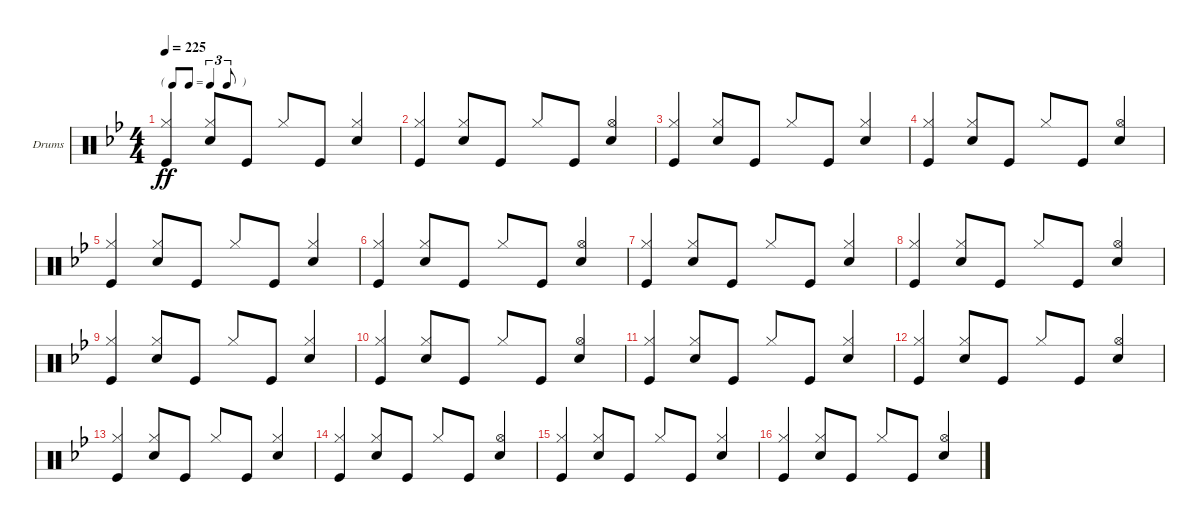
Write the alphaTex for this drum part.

\defaultSystemsLayout 4
\bracketExtendMode groupsimilarinstruments
\firstSystemTrackNameOrientation horizontal
\otherSystemsTrackNameOrientation horizontal
\track ("Drumkit" "Drums") {instrument percussion}
\staff {score}
\articulation defaults
\ts (4 4)
\tf triplet8th
\tempo 225
\clef neutral
\ks gminor
("Kick (hit)" "Hi-Hat (closed)").4{dy ff} ("Snare (hit) 2" "Hi-Hat (closed)").8{beam invert} "Kick (hit)".8 "Hi-Hat (closed)".8{beam invert} "Kick (hit)".8 ("Snare (hit) 2" "Hi-Hat (closed)").4{beam invert} |
("Kick (hit)" "Hi-Hat (closed)").4 ("Snare (hit) 2" "Hi-Hat (closed)").8{beam invert} "Kick (hit)".8 "Hi-Hat (closed)".8{beam invert} "Kick (hit)".8 ("Snare (hit) 2" "Hi-Hat (open)").4{beam invert} |
("Kick (hit)" "Hi-Hat (closed)").4 ("Snare (hit) 2" "Hi-Hat (closed)").8{beam invert} "Kick (hit)".8 "Hi-Hat (closed)".8{beam invert} "Kick (hit)".8 ("Snare (hit) 2" "Hi-Hat (closed)").4{beam invert} |
("Kick (hit)" "Hi-Hat (closed)").4 ("Snare (hit) 2" "Hi-Hat (closed)").8{beam invert} "Kick (hit)".8 "Hi-Hat (closed)".8{beam invert} "Kick (hit)".8 ("Snare (hit) 2" "Hi-Hat (open)").4{beam invert} |
("Kick (hit)" "Hi-Hat (closed)").4 ("Snare (hit) 2" "Hi-Hat (closed)").8{beam invert} "Kick (hit)".8 "Hi-Hat (closed)".8{beam invert} "Kick (hit)".8 ("Snare (hit) 2" "Hi-Hat (closed)").4{beam invert} |
("Kick (hit)" "Hi-Hat (closed)").4 ("Snare (hit) 2" "Hi-Hat (closed)").8{beam invert} "Kick (hit)".8 "Hi-Hat (closed)".8{beam invert} "Kick (hit)".8 ("Snare (hit) 2" "Hi-Hat (open)").4{beam invert} |
("Kick (hit)" "Hi-Hat (closed)").4 ("Snare (hit) 2" "Hi-Hat (closed)").8{beam invert} "Kick (hit)".8 "Hi-Hat (closed)".8{beam invert} "Kick (hit)".8 ("Snare (hit) 2" "Hi-Hat (closed)").4{beam invert} |
("Kick (hit)" "Hi-Hat (closed)").4 ("Snare (hit) 2" "Hi-Hat (closed)").8{beam invert} "Kick (hit)".8 "Hi-Hat (closed)".8{beam invert} "Kick (hit)".8 ("Snare (hit) 2" "Hi-Hat (open)").4{beam invert} |
("Kick (hit)" "Hi-Hat (closed)").4 ("Snare (hit) 2" "Hi-Hat (closed)").8{beam invert} "Kick (hit)".8 "Hi-Hat (closed)".8{beam invert} "Kick (hit)".8 ("Snare (hit) 2" "Hi-Hat (closed)").4{beam invert} |
("Kick (hit)" "Hi-Hat (closed)").4 ("Snare (hit) 2" "Hi-Hat (closed)").8{beam invert} "Kick (hit)".8 "Hi-Hat (closed)".8{beam invert} "Kick (hit)".8 ("Snare (hit) 2" "Hi-Hat (open)").4{beam invert} |
("Kick (hit)" "Hi-Hat (closed)").4 ("Snare (hit) 2" "Hi-Hat (closed)").8{beam invert} "Kick (hit)".8 "Hi-Hat (closed)".8{beam invert} "Kick (hit)".8 ("Snare (hit) 2" "Hi-Hat (closed)").4{beam invert} |
("Kick (hit)" "Hi-Hat (closed)").4 ("Snare (hit) 2" "Hi-Hat (closed)").8{beam invert} "Kick (hit)".8 "Hi-Hat (closed)".8{beam invert} "Kick (hit)".8 ("Snare (hit) 2" "Hi-Hat (open)").4{beam invert} |
("Kick (hit)" "Hi-Hat (closed)").4 ("Snare (hit) 2" "Hi-Hat (closed)").8{beam invert} "Kick (hit)".8 "Hi-Hat (closed)".8{beam invert} "Kick (hit)".8 ("Snare (hit) 2" "Hi-Hat (closed)").4{beam invert} |
("Kick (hit)" "Hi-Hat (closed)").4 ("Snare (hit) 2" "Hi-Hat (closed)").8{beam invert} "Kick (hit)".8 "Hi-Hat (closed)".8{beam invert} "Kick (hit)".8 ("Snare (hit) 2" "Hi-Hat (open)").4{beam invert} |
("Kick (hit)" "Hi-Hat (closed)").4 ("Snare (hit) 2" "Hi-Hat (closed)").8{beam invert} "Kick (hit)".8 "Hi-Hat (closed)".8{beam invert} "Kick (hit)".8 ("Snare (hit) 2" "Hi-Hat (closed)").4{beam invert} |
("Kick (hit)" "Hi-Hat (closed)").4 ("Snare (hit) 2" "Hi-Hat (closed)").8{beam invert} "Kick (hit)".8 "Hi-Hat (closed)".8{beam invert} "Kick (hit)".8 ("Snare (hit) 2" "Hi-Hat (open)").4{beam invert}
